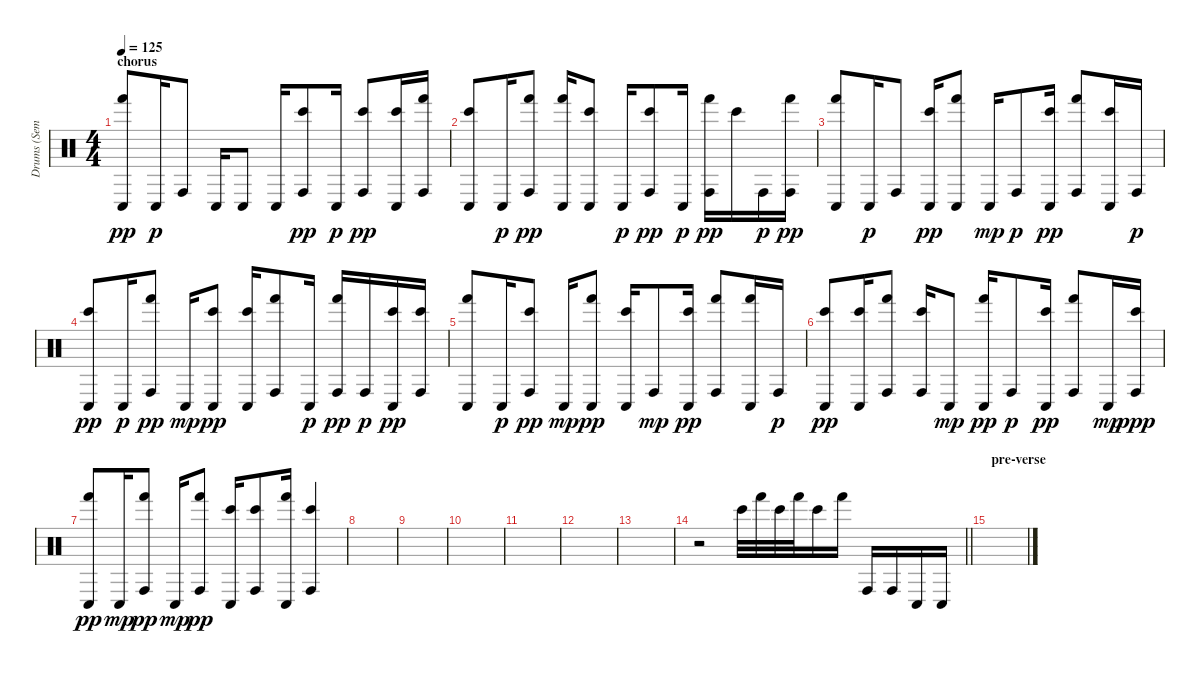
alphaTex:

\track ("Drums (Semple)" "Drums (Sem") {instrument percussion}
\staff {score}
\articulation defaults
\ts (4 4)
\section ("" "chorus")
\tempo 125
\clef neutral
\ks c
("Conga low (hit)" "Hand (hit)").8{dy pp} "Conga low (hit)".16{dy p} "Conga high (hit)".8 "Conga low (hit)".16 "Conga low (hit)".8 "Conga low (hit)".16 ("Conga high (hit)" "Bongo High (hit)").8{dy pp} "Conga low (hit)".16{dy p} ("Conga high (hit)" "Bongo High (hit)").8{dy pp} ("Conga low (hit)" "Bongo High (hit)").16 ("Conga high (hit)" "Hand (hit)").16 |
("Conga low (hit)" "Bongo High (hit)").8 "Conga low (hit)".16{dy p} ("Conga high (hit)" "Hand (hit)").8{dy pp} ("Conga low (hit)" "Hand (hit)").16 ("Conga low (hit)" "Bongo High (hit)").8 "Conga low (hit)".16{dy p} ("Conga high (hit)" "Bongo High (hit)").8{dy pp} "Conga low (hit)".16{dy p} ("Conga high (hit)" "Hand (hit)").16{dy pp} "Bongo High (hit)".16 "Conga high (hit)".16{dy p} ("Conga high (hit)" "Hand (hit)").16{dy pp} |
("Conga low (hit)" "Hand (hit)").8 "Conga low (hit)".16{dy p} "Conga high (hit)".8 ("Conga low (hit)" "Bongo High (hit)").16{dy pp} ("Conga low (hit)" "Hand (hit)").8 "Conga low (hit)".16{dy mp} "Conga high (hit)".8{dy p} ("Conga low (hit)" "Bongo High (hit)").16{dy pp} ("Conga high (hit)" "Hand (hit)").8 ("Conga low (hit)" "Bongo High (hit)").16 "Conga high (hit)".16{dy p} |
("Conga low (hit)" "Bongo High (hit)").8{dy pp} "Conga low (hit)".16{dy p} ("Conga high (hit)" "Hand (hit)").8{dy pp} "Conga low (hit)".16{dy mp} ("Conga low (hit)" "Bongo High (hit)").8{dy pp} ("Conga low (hit)" "Bongo High (hit)").16 ("Conga high (hit)" "Hand (hit)").8 "Conga low (hit)".16{dy p} ("Conga high (hit)" "Hand (hit)").16{dy pp} "Conga high (hit)".16{dy p} ("Conga low (hit)" "Bongo High (hit)").16{dy pp} ("Conga high (hit)" "Bongo High (hit)").16 |
("Conga low (hit)" "Hand (hit)").8 "Conga low (hit)".16{dy p} ("Conga high (hit)" "Bongo High (hit)").8{dy pp} "Conga low (hit)".16{dy mp} ("Conga low (hit)" "Hand (hit)").8{dy pp} ("Conga low (hit)" "Bongo High (hit)").16 "Conga high (hit)".8{dy mp} ("Conga low (hit)" "Bongo High (hit)").16{dy pp} ("Conga high (hit)" "Hand (hit)").8 ("Conga low (hit)" "Hand (hit)").16 "Conga high (hit)".16{dy p} |
("Conga low (hit)" "Bongo High (hit)").8{dy pp} ("Conga low (hit)" "Bongo High (hit)").16 ("Conga high (hit)" "Hand (hit)").8 ("Conga high (hit)" "Bongo High (hit)").16 "Conga low (hit)".8{dy mp} ("Conga low (hit)" "Hand (hit)").16{dy pp} "Conga high (hit)".8{dy p} ("Conga low (hit)" "Bongo High (hit)").16{dy pp} ("Conga high (hit)" "Hand (hit)").8 "Conga low (hit)".16{dy mp} ("Conga high (hit)" "Bongo High (hit)").16{dy ppp} |
("Conga low (hit)" "Hand (hit)").8{dy pp} "Conga low (hit)".16{dy mp} ("Conga high (hit)" "Hand (hit)").8{dy pp} "Conga low (hit)".16{dy mp} ("Conga high (hit)" "Hand (hit)").8{dy pp} ("Conga low (hit)" "Bongo High (hit)").16 ("Conga high (hit)" "Bongo High (hit)").8 ("Conga low (hit)" "Hand (hit)").16 ("Conga high (hit)" "Bongo High (hit)").4 |
|
|
|
|
|
|
\barLineRight lightlight
r.2 "Bongo High (hit)".32 "Hand (hit)".32 "Bongo High (hit)".32 "Hand (hit)".32 "Bongo High (hit)".16 "Hand (hit)".16 "Conga high (hit)".16 "Conga high (hit)".16 "Conga low (hit)".16 "Conga low (hit)".16 |
\section ("" "pre-verse")
